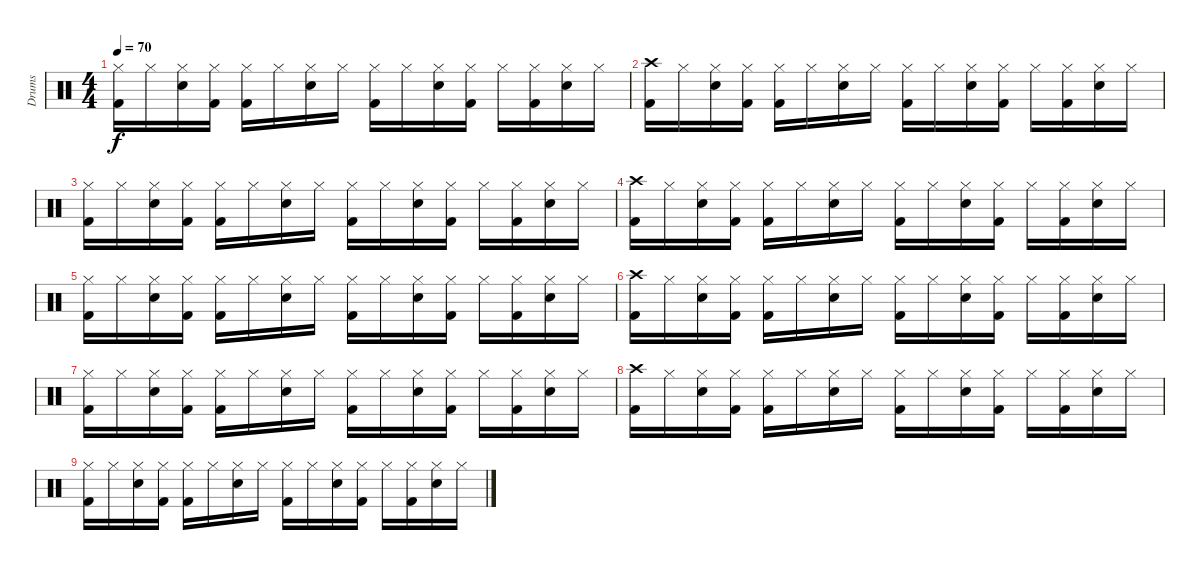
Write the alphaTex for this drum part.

\track ("Drums" "Drums") {instrument percussion}
\staff {score}
\articulation defaults
\ts (4 4)
\tempo 70
\clef neutral
\ks c
("Hi-Hat (closed)" "Kick (hit) 2").16{dy f} "Hi-Hat (closed)".16 ("Hi-Hat (closed)" "Snare (hit) 2").16 ("Hi-Hat (closed)" "Kick (hit) 2").16 ("Hi-Hat (closed)" "Kick (hit) 2").16 "Hi-Hat (closed)".16 ("Hi-Hat (closed)" "Snare (hit) 2").16 "Hi-Hat (closed)".16 ("Hi-Hat (closed)" "Kick (hit) 2").16 "Hi-Hat (closed)".16 ("Hi-Hat (closed)" "Snare (hit) 2").16 ("Hi-Hat (closed)" "Kick (hit) 2").16 "Hi-Hat (closed)".16 ("Hi-Hat (closed)" "Kick (hit) 2").16 ("Hi-Hat (closed)" "Snare (hit) 2").16 "Hi-Hat (closed)".16 |
("Crash high (hit)" "Kick (hit) 2").16 "Hi-Hat (closed)".16 ("Hi-Hat (closed)" "Snare (hit) 2").16 ("Hi-Hat (closed)" "Kick (hit) 2").16 ("Hi-Hat (closed)" "Kick (hit) 2").16 "Hi-Hat (closed)".16 ("Hi-Hat (closed)" "Snare (hit) 2").16 "Hi-Hat (closed)".16 ("Hi-Hat (closed)" "Kick (hit) 2").16 "Hi-Hat (closed)".16 ("Hi-Hat (closed)" "Snare (hit) 2").16 ("Hi-Hat (closed)" "Kick (hit) 2").16 "Hi-Hat (closed)".16 ("Hi-Hat (closed)" "Kick (hit) 2").16 ("Hi-Hat (closed)" "Snare (hit) 2").16 "Hi-Hat (closed)".16 |
("Hi-Hat (closed)" "Kick (hit) 2").16 "Hi-Hat (closed)".16 ("Hi-Hat (closed)" "Snare (hit) 2").16 ("Hi-Hat (closed)" "Kick (hit) 2").16 ("Hi-Hat (closed)" "Kick (hit) 2").16 "Hi-Hat (closed)".16 ("Hi-Hat (closed)" "Snare (hit) 2").16 "Hi-Hat (closed)".16 ("Hi-Hat (closed)" "Kick (hit) 2").16 "Hi-Hat (closed)".16 ("Hi-Hat (closed)" "Snare (hit) 2").16 ("Hi-Hat (closed)" "Kick (hit) 2").16 "Hi-Hat (closed)".16 ("Hi-Hat (closed)" "Kick (hit) 2").16 ("Hi-Hat (closed)" "Snare (hit) 2").16 "Hi-Hat (closed)".16 |
("Crash high (hit)" "Kick (hit) 2").16{volume 13} "Hi-Hat (closed)".16 ("Hi-Hat (closed)" "Snare (hit) 2").16 ("Hi-Hat (closed)" "Kick (hit) 2").16 ("Hi-Hat (closed)" "Kick (hit) 2").16 "Hi-Hat (closed)".16 ("Hi-Hat (closed)" "Snare (hit) 2").16 "Hi-Hat (closed)".16 ("Hi-Hat (closed)" "Kick (hit) 2").16 "Hi-Hat (closed)".16 ("Hi-Hat (closed)" "Snare (hit) 2").16 ("Hi-Hat (closed)" "Kick (hit) 2").16 "Hi-Hat (closed)".16 ("Hi-Hat (closed)" "Kick (hit) 2").16 ("Hi-Hat (closed)" "Snare (hit) 2").16 "Hi-Hat (closed)".16 |
("Hi-Hat (closed)" "Kick (hit) 2").16{volume 11} "Hi-Hat (closed)".16 ("Hi-Hat (closed)" "Snare (hit) 2").16 ("Hi-Hat (closed)" "Kick (hit) 2").16 ("Hi-Hat (closed)" "Kick (hit) 2").16 "Hi-Hat (closed)".16 ("Hi-Hat (closed)" "Snare (hit) 2").16 "Hi-Hat (closed)".16 ("Hi-Hat (closed)" "Kick (hit) 2").16 "Hi-Hat (closed)".16 ("Hi-Hat (closed)" "Snare (hit) 2").16 ("Hi-Hat (closed)" "Kick (hit) 2").16 "Hi-Hat (closed)".16 ("Hi-Hat (closed)" "Kick (hit) 2").16 ("Hi-Hat (closed)" "Snare (hit) 2").16 "Hi-Hat (closed)".16 |
("Crash high (hit)" "Kick (hit) 2").16{volume 8} "Hi-Hat (closed)".16 ("Hi-Hat (closed)" "Snare (hit) 2").16 ("Hi-Hat (closed)" "Kick (hit) 2").16 ("Hi-Hat (closed)" "Kick (hit) 2").16 "Hi-Hat (closed)".16 ("Hi-Hat (closed)" "Snare (hit) 2").16 "Hi-Hat (closed)".16 ("Hi-Hat (closed)" "Kick (hit) 2").16 "Hi-Hat (closed)".16 ("Hi-Hat (closed)" "Snare (hit) 2").16 ("Hi-Hat (closed)" "Kick (hit) 2").16 "Hi-Hat (closed)".16 ("Hi-Hat (closed)" "Kick (hit) 2").16 ("Hi-Hat (closed)" "Snare (hit) 2").16 "Hi-Hat (closed)".16 |
("Hi-Hat (closed)" "Kick (hit) 2").16{volume 6} "Hi-Hat (closed)".16 ("Hi-Hat (closed)" "Snare (hit) 2").16 ("Hi-Hat (closed)" "Kick (hit) 2").16 ("Hi-Hat (closed)" "Kick (hit) 2").16 "Hi-Hat (closed)".16 ("Hi-Hat (closed)" "Snare (hit) 2").16 "Hi-Hat (closed)".16 ("Hi-Hat (closed)" "Kick (hit) 2").16 "Hi-Hat (closed)".16 ("Hi-Hat (closed)" "Snare (hit) 2").16 ("Hi-Hat (closed)" "Kick (hit) 2").16 "Hi-Hat (closed)".16 ("Hi-Hat (closed)" "Kick (hit) 2").16 ("Hi-Hat (closed)" "Snare (hit) 2").16 "Hi-Hat (closed)".16 |
("Crash high (hit)" "Kick (hit) 2").16{volume 4} "Hi-Hat (closed)".16 ("Hi-Hat (closed)" "Snare (hit) 2").16 ("Hi-Hat (closed)" "Kick (hit) 2").16 ("Hi-Hat (closed)" "Kick (hit) 2").16 "Hi-Hat (closed)".16 ("Hi-Hat (closed)" "Snare (hit) 2").16 "Hi-Hat (closed)".16 ("Hi-Hat (closed)" "Kick (hit) 2").16 "Hi-Hat (closed)".16 ("Hi-Hat (closed)" "Snare (hit) 2").16 ("Hi-Hat (closed)" "Kick (hit) 2").16 "Hi-Hat (closed)".16 ("Hi-Hat (closed)" "Kick (hit) 2").16 ("Hi-Hat (closed)" "Snare (hit) 2").16 "Hi-Hat (closed)".16 |
("Hi-Hat (closed)" "Kick (hit) 2").16{volume 2} "Hi-Hat (closed)".16 ("Hi-Hat (closed)" "Snare (hit) 2").16 ("Hi-Hat (closed)" "Kick (hit) 2").16 ("Hi-Hat (closed)" "Kick (hit) 2").16 "Hi-Hat (closed)".16 ("Hi-Hat (closed)" "Snare (hit) 2").16 "Hi-Hat (closed)".16 ("Hi-Hat (closed)" "Kick (hit) 2").16 "Hi-Hat (closed)".16 ("Hi-Hat (closed)" "Snare (hit) 2").16 ("Hi-Hat (closed)" "Kick (hit) 2").16 "Hi-Hat (closed)".16 ("Hi-Hat (closed)" "Kick (hit) 2").16 ("Hi-Hat (closed)" "Snare (hit) 2").16 "Hi-Hat (closed)".16
